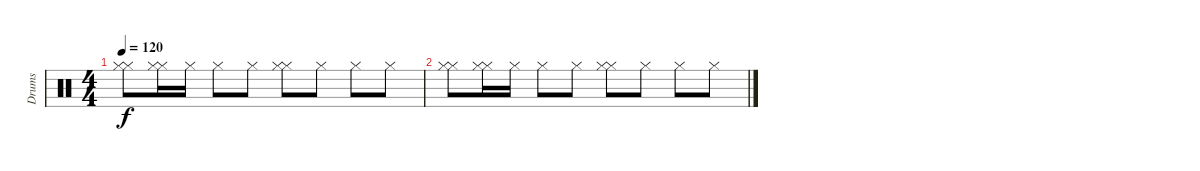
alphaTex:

\track ("Drums" "Drums") {instrument percussion}
\staff {score}
\articulation defaults
\ts (4 4)
\tempo 120
\clef neutral
\ks c
("Hi-Hat (closed)" "Hi-Hat (closed)").8{dy f} ("Hi-Hat (closed)" "Hi-Hat (closed)").16 "Hi-Hat (closed)".16 "Hi-Hat (closed)".8 "Hi-Hat (closed)".8 ("Hi-Hat (closed)" "Hi-Hat (closed)").8 "Hi-Hat (closed)".8 "Hi-Hat (closed)".8 "Hi-Hat (closed)".8 |
("Hi-Hat (closed)" "Hi-Hat (closed)").8 ("Hi-Hat (closed)" "Hi-Hat (closed)").16 "Hi-Hat (closed)".16 "Hi-Hat (closed)".8 "Hi-Hat (closed)".8 ("Hi-Hat (closed)" "Hi-Hat (closed)").8 "Hi-Hat (closed)".8 "Hi-Hat (closed)".8 "Hi-Hat (closed)".8
